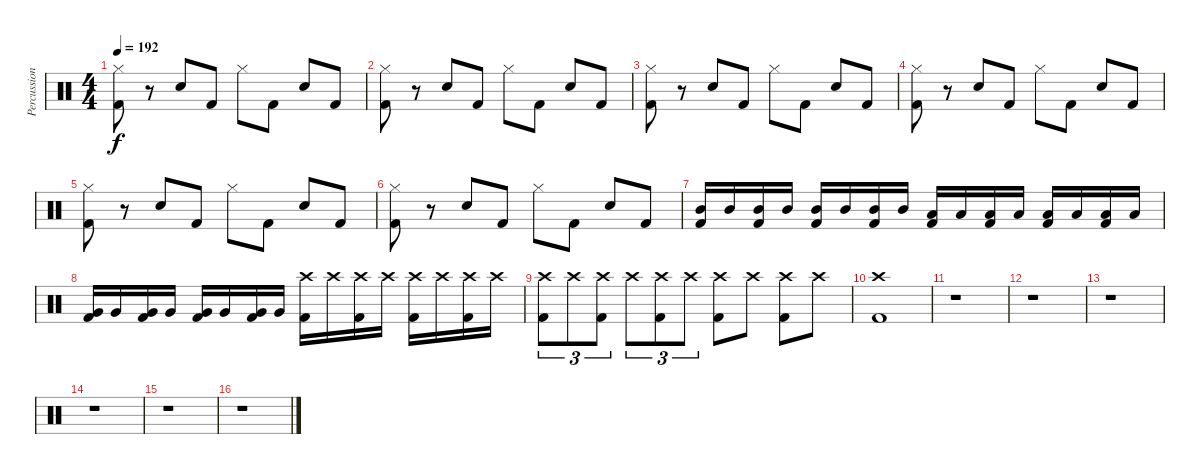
\track ("Percussions" "Percussion") {instrument percussion}
\staff {score}
\articulation defaults
\ts (4 4)
\tempo 192
\clef neutral
\ks c
("Kick (hit) 2" "Hi-Hat (closed)").8{dy f} r.8 "Snare (hit) 2".8 "Kick (hit) 2".8 "Hi-Hat (closed)".8 "Kick (hit) 2".8 "Snare (hit) 2".8 "Kick (hit) 2".8 |
("Kick (hit) 2" "Hi-Hat (closed)").8 r.8 "Snare (hit) 2".8 "Kick (hit) 2".8 "Hi-Hat (closed)".8 "Kick (hit) 2".8 "Snare (hit) 2".8 "Kick (hit) 2".8 |
("Kick (hit) 2" "Hi-Hat (closed)").8 r.8 "Snare (hit) 2".8 "Kick (hit) 2".8 "Hi-Hat (closed)".8 "Kick (hit) 2".8 "Snare (hit) 2".8 "Kick (hit) 2".8 |
("Kick (hit) 2" "Hi-Hat (closed)").8 r.8 "Snare (hit) 2".8 "Kick (hit) 2".8 "Hi-Hat (closed)".8 "Kick (hit) 2".8 "Snare (hit) 2".8 "Kick (hit) 2".8 |
("Kick (hit) 2" "Hi-Hat (closed)").8 r.8 "Snare (hit) 2".8 "Kick (hit) 2".8 "Hi-Hat (closed)".8 "Kick (hit) 2".8 "Snare (hit) 2".8 "Kick (hit) 2".8 |
("Kick (hit) 2" "Hi-Hat (closed)").8 r.8 "Snare (hit) 2".8 "Kick (hit) 2".8 "Hi-Hat (closed)".8 "Kick (hit) 2".8 "Snare (hit) 2".8 "Kick (hit) 2".8 |
("Kick (hit) 2" "Mid Tom (hit)").16 "Mid Tom (hit)".16 ("Kick (hit) 2" "Mid Tom (hit)").16 "Mid Tom (hit)".16 ("Kick (hit) 2" "Mid Tom (hit)").16 "Mid Tom (hit)".16 ("Kick (hit) 2" "Mid Tom (hit)").16 "Mid Tom (hit)".16 ("Kick (hit) 2" "Low Tom (hit)").16 "Low Tom (hit)".16 ("Kick (hit) 2" "Low Tom (hit)").16 "Low Tom (hit)".16 ("Kick (hit) 2" "Low Tom (hit)").16 "Low Tom (hit)".16 ("Kick (hit) 2" "Low Tom (hit)").16 "Low Tom (hit)".16 |
("Very Low Tom (hit)" "Kick (hit) 2").16 "Very Low Tom (hit)".16 ("Very Low Tom (hit)" "Kick (hit) 2").16 "Very Low Tom (hit)".16 ("Very Low Tom (hit)" "Kick (hit) 2").16 "Very Low Tom (hit)".16 ("Very Low Tom (hit)" "Kick (hit) 2").16 "Very Low Tom (hit)".16 ("Crash high (hit)" "Kick (hit) 2").16 "Crash high (hit)".16 ("Crash high (hit)" "Kick (hit) 2").16 "Crash high (hit)".16 ("Crash high (hit)" "Kick (hit) 2").16 "Crash high (hit)".16 ("Crash high (hit)" "Kick (hit) 2").16 "Crash high (hit)".16 |
("Crash high (hit)" "Kick (hit) 2").8{tu (3 2)} "Crash high (hit)".8{tu (3 2)} ("Crash high (hit)" "Kick (hit) 2").8{tu (3 2)} "Crash high (hit)".8{tu (3 2)} ("Crash high (hit)" "Kick (hit) 2").8{tu (3 2)} "Crash high (hit)".8{tu (3 2)} ("Crash high (hit)" "Kick (hit) 2").8 "Crash high (hit)".8 ("Crash high (hit)" "Kick (hit) 2").8 "Crash high (hit)".8 |
("Crash high (hit)" "Kick (hit) 2").1 |
r.1 |
r.1 |
r.1 |
r.1 |
r.1 |
r.1
